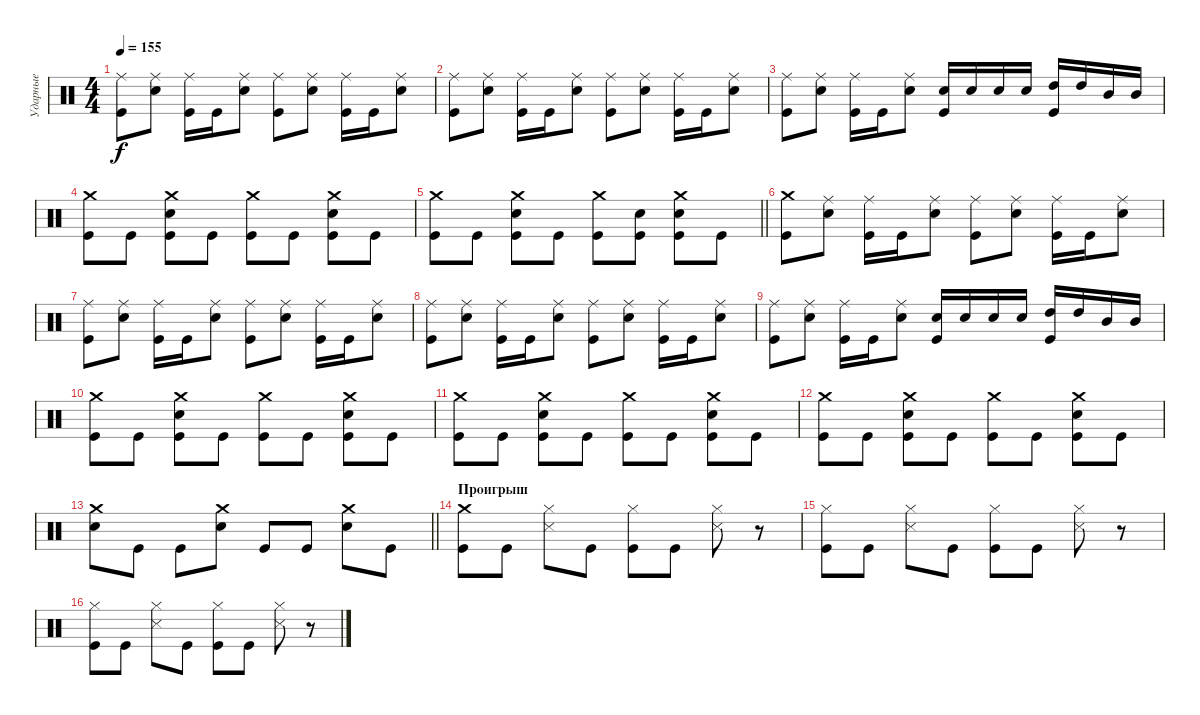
\track ("Ударные" "Ударные") {instrument percussion}
\staff {score}
\articulation defaults
\ts (4 4)
\tempo 155
\clef neutral
\ks c
("Ride (middle)" "Kick (hit)").8{dy f} ("Ride (middle)" "Electric Snare (hit)").8 ("Ride (middle)" "Kick (hit)").16 "Kick (hit)".16 ("Ride (middle)" "Electric Snare (hit)").8 ("Ride (middle)" "Kick (hit)").8 ("Ride (middle)" "Electric Snare (hit)").8 ("Ride (middle)" "Kick (hit)").16 "Kick (hit)".16 ("Ride (middle)" "Electric Snare (hit)").8 |
("Ride (middle)" "Kick (hit)").8 ("Ride (middle)" "Electric Snare (hit)").8 ("Ride (middle)" "Kick (hit)").16 "Kick (hit)".16 ("Ride (middle)" "Electric Snare (hit)").8 ("Ride (middle)" "Kick (hit)").8 ("Ride (middle)" "Electric Snare (hit)").8 ("Ride (middle)" "Kick (hit)").16 "Kick (hit)".16 ("Ride (middle)" "Electric Snare (hit)").8 |
("Ride (middle)" "Kick (hit)").8 ("Ride (middle)" "Electric Snare (hit)").8 ("Ride (middle)" "Kick (hit)").16 "Kick (hit)".16 ("Ride (middle)" "Electric Snare (hit)").8 ("Electric Snare (hit)" "Kick (hit)").16 "Electric Snare (hit)".16 "Electric Snare (hit)".16 "Electric Snare (hit)".16 ("High Tom (hit)" "Kick (hit)").16 "High Tom (hit)".16 "Mid Tom (hit)".16 "Mid Tom (hit)".16 |
("Crash medium (hit)" "Kick (hit)").8 "Kick (hit)".8 ("Crash medium (hit)" "Electric Snare (hit)" "Kick (hit)").8 "Kick (hit)".8 ("Crash medium (hit)" "Kick (hit)").8 "Kick (hit)".8 ("Crash medium (hit)" "Electric Snare (hit)" "Kick (hit)").8 "Kick (hit)".8 |
\barLineRight lightlight
("Crash medium (hit)" "Kick (hit)").8 "Kick (hit)".8 ("Crash medium (hit)" "Electric Snare (hit)" "Kick (hit)").8 "Kick (hit)".8 ("Crash medium (hit)" "Kick (hit)").8 ("Electric Snare (hit)" "Kick (hit)").8 ("Crash medium (hit)" "Electric Snare (hit)" "Kick (hit)").8 "Kick (hit)".8 |
\section ("" " ")
("Crash medium (hit)" "Kick (hit)").8 ("Ride (middle)" "Electric Snare (hit)").8 ("Ride (middle)" "Kick (hit)").16 "Kick (hit)".16 ("Ride (middle)" "Electric Snare (hit)").8 ("Ride (middle)" "Kick (hit)").8 ("Ride (middle)" "Electric Snare (hit)").8 ("Ride (middle)" "Kick (hit)").16 "Kick (hit)".16 ("Ride (middle)" "Electric Snare (hit)").8 |
("Ride (middle)" "Kick (hit)").8 ("Ride (middle)" "Electric Snare (hit)").8 ("Ride (middle)" "Kick (hit)").16 "Kick (hit)".16 ("Ride (middle)" "Electric Snare (hit)").8 ("Ride (middle)" "Kick (hit)").8 ("Ride (middle)" "Electric Snare (hit)").8 ("Ride (middle)" "Kick (hit)").16 "Kick (hit)".16 ("Ride (middle)" "Electric Snare (hit)").8 |
("Ride (middle)" "Kick (hit)").8 ("Ride (middle)" "Electric Snare (hit)").8 ("Ride (middle)" "Kick (hit)").16 "Kick (hit)".16 ("Ride (middle)" "Electric Snare (hit)").8 ("Ride (middle)" "Kick (hit)").8 ("Ride (middle)" "Electric Snare (hit)").8 ("Ride (middle)" "Kick (hit)").16 "Kick (hit)".16 ("Ride (middle)" "Electric Snare (hit)").8 |
("Ride (middle)" "Kick (hit)").8 ("Ride (middle)" "Electric Snare (hit)").8 ("Ride (middle)" "Kick (hit)").16 "Kick (hit)".16 ("Ride (middle)" "Electric Snare (hit)").8 ("Electric Snare (hit)" "Kick (hit)").16 "Electric Snare (hit)".16 "Electric Snare (hit)".16 "Electric Snare (hit)".16 ("High Tom (hit)" "Kick (hit)").16 "High Tom (hit)".16 "Mid Tom (hit)".16 "Mid Tom (hit)".16 |
("Crash medium (hit)" "Kick (hit)").8 "Kick (hit)".8 ("Crash medium (hit)" "Electric Snare (hit)" "Kick (hit)").8 "Kick (hit)".8 ("Crash medium (hit)" "Kick (hit)").8 "Kick (hit)".8 ("Crash medium (hit)" "Electric Snare (hit)" "Kick (hit)").8 "Kick (hit)".8 |
("Crash medium (hit)" "Kick (hit)").8 "Kick (hit)".8 ("Crash medium (hit)" "Electric Snare (hit)" "Kick (hit)").8 "Kick (hit)".8 ("Crash medium (hit)" "Kick (hit)").8 "Kick (hit)".8 ("Crash medium (hit)" "Electric Snare (hit)" "Kick (hit)").8 "Kick (hit)".8 |
("Crash medium (hit)" "Kick (hit)").8 "Kick (hit)".8 ("Crash medium (hit)" "Electric Snare (hit)" "Kick (hit)").8 "Kick (hit)".8 ("Crash medium (hit)" "Kick (hit)").8 "Kick (hit)".8 ("Crash medium (hit)" "Electric Snare (hit)" "Kick (hit)").8 "Kick (hit)".8 |
\barLineRight lightlight
("Crash medium (hit)" "Electric Snare (hit)").8 "Kick (hit)".8 "Kick (hit)".8 ("Crash medium (hit)" "Electric Snare (hit)").8 "Kick (hit)".8 "Kick (hit)".8 ("Crash medium (hit)" "Electric Snare (hit)").8 "Kick (hit)".8 |
\section ("" "Проигрыш")
("Crash medium (hit)" "Kick (hit)").8 "Kick (hit)".8 ("Hi-Hat (closed)" "Snare (side stick) 3").8 "Kick (hit)".8 ("Hi-Hat (closed)" "Kick (hit)").8 "Kick (hit)".8 ("Hi-Hat (closed)" "Snare (side stick) 3").8 r.8 |
("Hi-Hat (closed)" "Kick (hit)").8 "Kick (hit)".8 ("Hi-Hat (closed)" "Snare (side stick) 3").8 "Kick (hit)".8 ("Hi-Hat (closed)" "Kick (hit)").8 "Kick (hit)".8 ("Hi-Hat (closed)" "Snare (side stick) 3").8 r.8 |
("Hi-Hat (closed)" "Kick (hit)").8 "Kick (hit)".8 ("Hi-Hat (closed)" "Snare (side stick) 3").8 "Kick (hit)".8 ("Hi-Hat (closed)" "Kick (hit)").8 "Kick (hit)".8 ("Hi-Hat (closed)" "Snare (side stick) 3").8 r.8
